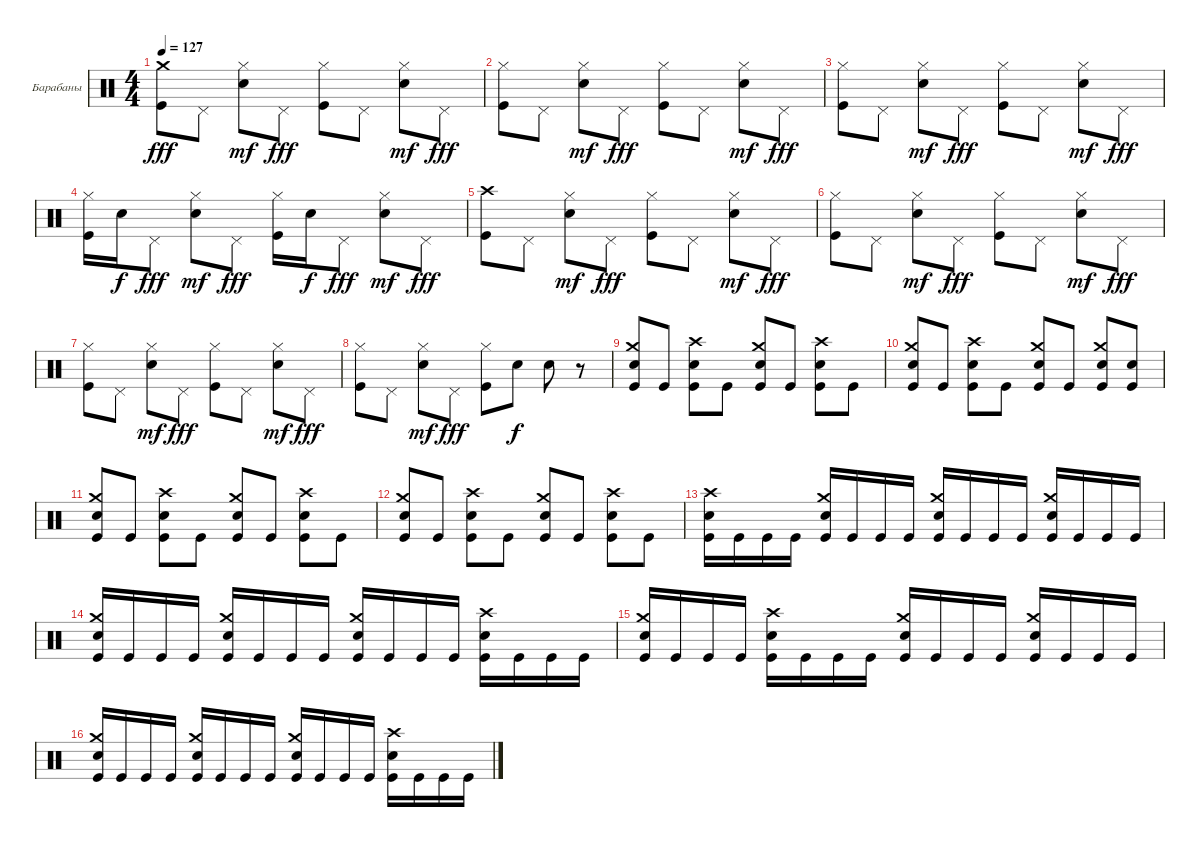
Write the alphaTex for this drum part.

\bracketExtendMode groupsimilarinstruments
\firstSystemTrackNameOrientation horizontal
\otherSystemsTrackNameOrientation horizontal
\track ("Ударные" "Барабаны") {instrument percussion}
\staff {score}
\articulation defaults
\ts (4 4)
\tempo 127
\clef neutral
\ks c
("Kick (hit)" "Crash medium (hit)").8{dy fff} "Pedal Hi-Hat (hit)".8 ("Hi-Hat (closed)" "Snare (hit) 2").8{dy mf} "Pedal Hi-Hat (hit)".8{dy fff} ("Kick (hit)" "Hi-Hat (closed)").8 "Pedal Hi-Hat (hit)".8 ("Hi-Hat (closed)" "Snare (hit) 2").8{dy mf} "Pedal Hi-Hat (hit)".8{dy fff} |
("Kick (hit)" "Hi-Hat (closed)").8 "Pedal Hi-Hat (hit)".8 ("Hi-Hat (closed)" "Snare (hit) 2").8{dy mf} "Pedal Hi-Hat (hit)".8{dy fff} ("Kick (hit)" "Hi-Hat (closed)").8 "Pedal Hi-Hat (hit)".8 ("Hi-Hat (closed)" "Snare (hit) 2").8{dy mf} "Pedal Hi-Hat (hit)".8{dy fff} |
("Kick (hit)" "Hi-Hat (closed)").8 "Pedal Hi-Hat (hit)".8 ("Hi-Hat (closed)" "Snare (hit) 2").8{dy mf} "Pedal Hi-Hat (hit)".8{dy fff} ("Kick (hit)" "Hi-Hat (closed)").8 "Pedal Hi-Hat (hit)".8 ("Hi-Hat (closed)" "Snare (hit) 2").8{dy mf} "Pedal Hi-Hat (hit)".8{dy fff} |
("Kick (hit)" "Hi-Hat (closed)").16 "Snare (hit) 2".16{dy f} "Pedal Hi-Hat (hit)".8{dy fff} ("Hi-Hat (closed)" "Snare (hit) 2").8{dy mf} "Pedal Hi-Hat (hit)".8{dy fff} ("Kick (hit)" "Hi-Hat (closed)").16 "Snare (hit) 2".16{dy f} "Pedal Hi-Hat (hit)".8{dy fff} ("Hi-Hat (closed)" "Snare (hit) 2").8{dy mf} "Pedal Hi-Hat (hit)".8{dy fff} |
("Kick (hit)" "Crash high (hit)").8 "Pedal Hi-Hat (hit)".8 ("Hi-Hat (closed)" "Snare (hit) 2").8{dy mf} "Pedal Hi-Hat (hit)".8{dy fff} ("Kick (hit)" "Hi-Hat (closed)").8 "Pedal Hi-Hat (hit)".8 ("Hi-Hat (closed)" "Snare (hit) 2").8{dy mf} "Pedal Hi-Hat (hit)".8{dy fff} |
("Kick (hit)" "Hi-Hat (closed)").8 "Pedal Hi-Hat (hit)".8 ("Hi-Hat (closed)" "Snare (hit) 2").8{dy mf} "Pedal Hi-Hat (hit)".8{dy fff} ("Kick (hit)" "Hi-Hat (closed)").8 "Pedal Hi-Hat (hit)".8 ("Hi-Hat (closed)" "Snare (hit) 2").8{dy mf} "Pedal Hi-Hat (hit)".8{dy fff} |
("Kick (hit)" "Hi-Hat (closed)").8 "Pedal Hi-Hat (hit)".8 ("Hi-Hat (closed)" "Snare (hit) 2").8{dy mf} "Pedal Hi-Hat (hit)".8{dy fff} ("Kick (hit)" "Hi-Hat (closed)").8 "Pedal Hi-Hat (hit)".8 ("Hi-Hat (closed)" "Snare (hit) 2").8{dy mf} "Pedal Hi-Hat (hit)".8{dy fff} |
("Kick (hit)" "Hi-Hat (closed)").8 "Pedal Hi-Hat (hit)".8 ("Hi-Hat (closed)" "Snare (hit) 2").8{dy mf} "Pedal Hi-Hat (hit)".8{dy fff} ("Kick (hit)" "Hi-Hat (closed)").8 "Snare (hit) 2".8{dy f} "Snare (hit) 2".8 r.8 |
("Kick (hit)" "Crash medium (hit)" "Snare (hit) 2").8 "Kick (hit)".8 ("Kick (hit)" "Crash high (hit)" "Snare (hit) 2").8 "Kick (hit)".8 ("Kick (hit)" "Crash medium (hit)" "Snare (hit) 2").8 "Kick (hit)".8 ("Kick (hit)" "Crash high (hit)" "Snare (hit) 2").8 "Kick (hit)".8 |
("Kick (hit)" "Crash medium (hit)" "Snare (hit) 2").8 "Kick (hit)".8 ("Kick (hit)" "Crash high (hit)" "Snare (hit) 2").8 "Kick (hit)".8 ("Kick (hit)" "Crash medium (hit)" "Snare (hit) 2").8 "Kick (hit)".8 ("Kick (hit)" "Crash medium (hit)" "Snare (hit) 2").8 ("Kick (hit)" "Snare (hit) 2").8 |
("Kick (hit)" "Crash medium (hit)" "Snare (hit) 2").8 "Kick (hit)".8 ("Kick (hit)" "Crash high (hit)" "Snare (hit) 2").8 "Kick (hit)".8 ("Kick (hit)" "Crash medium (hit)" "Snare (hit) 2").8 "Kick (hit)".8 ("Kick (hit)" "Crash high (hit)" "Snare (hit) 2").8 "Kick (hit)".8 |
("Kick (hit)" "Crash medium (hit)" "Snare (hit) 2").8 "Kick (hit)".8 ("Kick (hit)" "Crash high (hit)" "Snare (hit) 2").8 "Kick (hit)".8 ("Kick (hit)" "Crash medium (hit)" "Snare (hit) 2").8 "Kick (hit)".8 ("Kick (hit)" "Crash high (hit)" "Snare (hit) 2").8 "Kick (hit)".8 |
("Kick (hit)" "Crash high (hit)" "Snare (hit) 2").16 "Kick (hit)".16 "Kick (hit)".16 "Kick (hit)".16 ("Kick (hit)" "Crash medium (hit)" "Snare (hit) 2").16 "Kick (hit)".16 "Kick (hit)".16 "Kick (hit)".16 ("Kick (hit)" "Crash medium (hit)" "Snare (hit) 2").16 "Kick (hit)".16 "Kick (hit)".16 "Kick (hit)".16 ("Kick (hit)" "Crash medium (hit)" "Snare (hit) 2").16 "Kick (hit)".16 "Kick (hit)".16 "Kick (hit)".16 |
("Kick (hit)" "Crash medium (hit)" "Snare (hit) 2").16 "Kick (hit)".16 "Kick (hit)".16 "Kick (hit)".16 ("Kick (hit)" "Crash medium (hit)" "Snare (hit) 2").16 "Kick (hit)".16 "Kick (hit)".16 "Kick (hit)".16 ("Kick (hit)" "Crash medium (hit)" "Snare (hit) 2").16 "Kick (hit)".16 "Kick (hit)".16 "Kick (hit)".16 ("Kick (hit)" "Crash high (hit)" "Snare (hit) 2").16 "Kick (hit)".16 "Kick (hit)".16 "Kick (hit)".16 |
("Kick (hit)" "Crash medium (hit)" "Snare (hit) 2").16 "Kick (hit)".16 "Kick (hit)".16 "Kick (hit)".16 ("Kick (hit)" "Crash high (hit)" "Snare (hit) 2").16 "Kick (hit)".16 "Kick (hit)".16 "Kick (hit)".16 ("Kick (hit)" "Crash medium (hit)" "Snare (hit) 2").16 "Kick (hit)".16 "Kick (hit)".16 "Kick (hit)".16 ("Kick (hit)" "Crash medium (hit)" "Snare (hit) 2").16 "Kick (hit)".16 "Kick (hit)".16 "Kick (hit)".16 |
("Kick (hit)" "Crash medium (hit)" "Snare (hit) 2").16 "Kick (hit)".16 "Kick (hit)".16 "Kick (hit)".16 ("Kick (hit)" "Crash medium (hit)" "Snare (hit) 2").16 "Kick (hit)".16 "Kick (hit)".16 "Kick (hit)".16 ("Kick (hit)" "Crash medium (hit)" "Snare (hit) 2").16 "Kick (hit)".16 "Kick (hit)".16 "Kick (hit)".16 ("Kick (hit)" "Crash high (hit)" "Snare (hit) 2").16 "Kick (hit)".16 "Kick (hit)".16 "Kick (hit)".16
